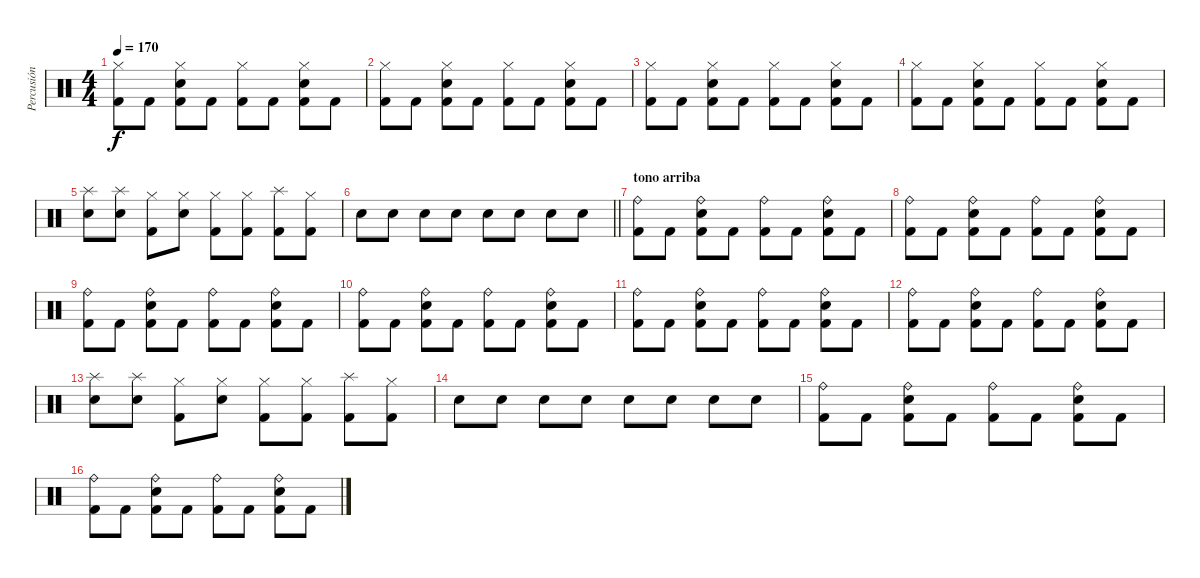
\track ("Percusión" "Percusión") {instrument percussion}
\staff {score}
\articulation defaults
\ts (4 4)
\tempo 170
\clef neutral
\ks c
("Hi-Hat (closed)" "Kick (hit) 2").8{dy f} "Kick (hit) 2".8 ("Hi-Hat (closed)" "Electric Snare (hit)" "Kick (hit) 2").8 "Kick (hit) 2".8 ("Hi-Hat (closed)" "Kick (hit) 2").8 "Kick (hit) 2".8 ("Hi-Hat (closed)" "Electric Snare (hit)" "Kick (hit) 2").8 "Kick (hit) 2".8 |
("Hi-Hat (closed)" "Kick (hit) 2").8 "Kick (hit) 2".8 ("Hi-Hat (closed)" "Electric Snare (hit)" "Kick (hit) 2").8 "Kick (hit) 2".8 ("Hi-Hat (closed)" "Kick (hit) 2").8 "Kick (hit) 2".8 ("Hi-Hat (closed)" "Electric Snare (hit)" "Kick (hit) 2").8 "Kick (hit) 2".8 |
("Hi-Hat (closed)" "Kick (hit) 2").8 "Kick (hit) 2".8 ("Hi-Hat (closed)" "Electric Snare (hit)" "Kick (hit) 2").8 "Kick (hit) 2".8 ("Hi-Hat (closed)" "Kick (hit) 2").8 "Kick (hit) 2".8 ("Hi-Hat (closed)" "Electric Snare (hit)" "Kick (hit) 2").8 "Kick (hit) 2".8 |
("Hi-Hat (closed)" "Kick (hit) 2").8 "Kick (hit) 2".8 ("Hi-Hat (closed)" "Electric Snare (hit)" "Kick (hit) 2").8 "Kick (hit) 2".8 ("Hi-Hat (closed)" "Kick (hit) 2").8 "Kick (hit) 2".8 ("Hi-Hat (closed)" "Electric Snare (hit)" "Kick (hit) 2").8 "Kick (hit) 2".8 |
("Splash (hit)" "Electric Snare (hit)").8 ("Splash (hit)" "Electric Snare (hit)").8 ("Hi-Hat (closed)" "Kick (hit) 2").8 ("Hi-Hat (closed)" "Electric Snare (hit)").8 ("Hi-Hat (closed)" "Kick (hit) 2").8 ("Hi-Hat (closed)" "Kick (hit) 2").8 ("Splash (hit)" "Kick (hit) 2").8 ("Hi-Hat (closed)" "Kick (hit) 2").8 |
\barLineRight lightlight "Electric Snare (hit)".8 "Electric Snare (hit)".8 "Electric Snare (hit)".8 "Electric Snare (hit)".8 "Electric Snare (hit)".8 "Electric Snare (hit)".8 "Electric Snare (hit)".8 "Electric Snare (hit)".8
|
\section ("" "tono arriba")
("Ride (bell)" "Kick (hit) 2").8 "Kick (hit) 2".8 ("Ride (bell)" "Electric Snare (hit)" "Kick (hit) 2").8 "Kick (hit) 2".8 ("Ride (bell)" "Kick (hit) 2").8 "Kick (hit) 2".8 ("Ride (bell)" "Electric Snare (hit)" "Kick (hit) 2").8 "Kick (hit) 2".8 |
("Ride (bell)" "Kick (hit) 2").8 "Kick (hit) 2".8 ("Ride (bell)" "Electric Snare (hit)" "Kick (hit) 2").8 "Kick (hit) 2".8 ("Ride (bell)" "Kick (hit) 2").8 "Kick (hit) 2".8 ("Ride (bell)" "Electric Snare (hit)" "Kick (hit) 2").8 "Kick (hit) 2".8 |
("Ride (bell)" "Kick (hit) 2").8 "Kick (hit) 2".8 ("Ride (bell)" "Electric Snare (hit)" "Kick (hit) 2").8 "Kick (hit) 2".8 ("Ride (bell)" "Kick (hit) 2").8 "Kick (hit) 2".8 ("Ride (bell)" "Electric Snare (hit)" "Kick (hit) 2").8 "Kick (hit) 2".8 |
("Ride (bell)" "Kick (hit) 2").8 "Kick (hit) 2".8 ("Ride (bell)" "Electric Snare (hit)" "Kick (hit) 2").8 "Kick (hit) 2".8 ("Ride (bell)" "Kick (hit) 2").8 "Kick (hit) 2".8 ("Ride (bell)" "Electric Snare (hit)" "Kick (hit) 2").8 "Kick (hit) 2".8 |
("Ride (bell)" "Kick (hit) 2").8 "Kick (hit) 2".8 ("Ride (bell)" "Electric Snare (hit)" "Kick (hit) 2").8 "Kick (hit) 2".8 ("Ride (bell)" "Kick (hit) 2").8 "Kick (hit) 2".8 ("Ride (bell)" "Electric Snare (hit)" "Kick (hit) 2").8 "Kick (hit) 2".8 |
("Ride (bell)" "Kick (hit) 2").8 "Kick (hit) 2".8 ("Ride (bell)" "Electric Snare (hit)" "Kick (hit) 2").8 "Kick (hit) 2".8 ("Ride (bell)" "Kick (hit) 2").8 "Kick (hit) 2".8 ("Ride (bell)" "Electric Snare (hit)" "Kick (hit) 2").8 "Kick (hit) 2".8 |
("Splash (hit)" "Electric Snare (hit)").8 ("Splash (hit)" "Electric Snare (hit)").8 ("Hi-Hat (closed)" "Kick (hit) 2").8 ("Hi-Hat (closed)" "Electric Snare (hit)").8 ("Hi-Hat (closed)" "Kick (hit) 2").8 ("Hi-Hat (closed)" "Kick (hit) 2").8 ("Splash (hit)" "Kick (hit) 2").8 ("Hi-Hat (closed)" "Kick (hit) 2").8 |
"Electric Snare (hit)".8 "Electric Snare (hit)".8 "Electric Snare (hit)".8 "Electric Snare (hit)".8 "Electric Snare (hit)".8 "Electric Snare (hit)".8 "Electric Snare (hit)".8 "Electric Snare (hit)".8 |
("Ride (bell)" "Kick (hit) 2").8 "Kick (hit) 2".8 ("Ride (bell)" "Electric Snare (hit)" "Kick (hit) 2").8 "Kick (hit) 2".8 ("Ride (bell)" "Kick (hit) 2").8 "Kick (hit) 2".8 ("Ride (bell)" "Electric Snare (hit)" "Kick (hit) 2").8 "Kick (hit) 2".8 |
("Ride (bell)" "Kick (hit) 2").8 "Kick (hit) 2".8 ("Ride (bell)" "Electric Snare (hit)" "Kick (hit) 2").8 "Kick (hit) 2".8 ("Ride (bell)" "Kick (hit) 2").8 "Kick (hit) 2".8 ("Ride (bell)" "Electric Snare (hit)" "Kick (hit) 2").8 "Kick (hit) 2".8
